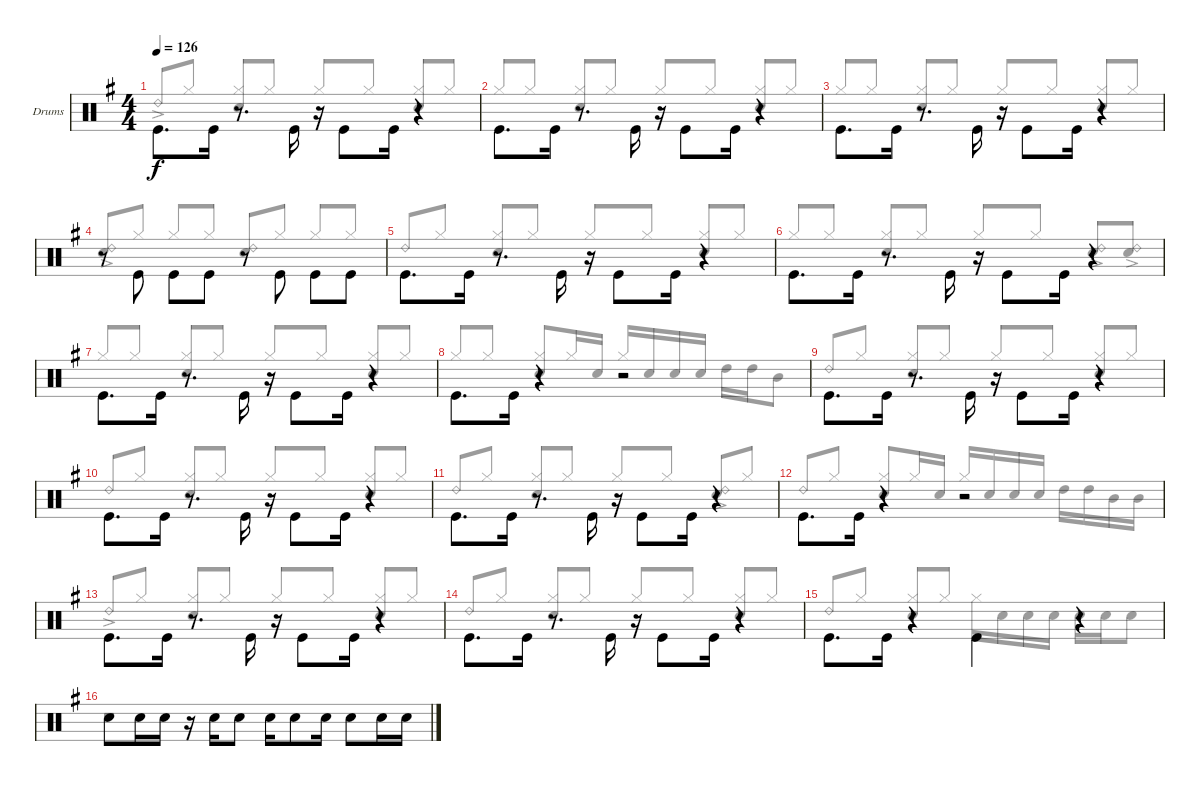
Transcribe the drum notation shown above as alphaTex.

\defaultSystemsLayout 4
\bracketExtendMode groupsimilarinstruments
\firstSystemTrackNameOrientation horizontal
\otherSystemsTrackNameOrientation horizontal
\track ("Drumkit" "Drums") {instrument percussion}
\staff {score}
\articulation defaults
\voice
\ts (4 4)
\tempo 126
\clef neutral
\scale
1.04288
\ks g "Kick (hit)".8{d dy f beam invert} "Kick (hit)".16
r.8{d beam invert} "Kick (hit)".16{beam invert} r.16{beam invert} "Kick (hit)".8{beam invert} "Kick (hit)".16 r.4{beam invert} |
\scale
0.957125 "Kick (hit)".8{d beam invert} "Kick (hit)".16 r.8{d beam invert} "Kick (hit)".16{beam invert} r.16{beam invert} "Kick (hit)".8{beam invert} "Kick (hit)".16 r.4{beam invert} |
\scale
1.04288 "Kick (hit)".8{d beam invert} "Kick (hit)".16 r.8{d beam invert} "Kick (hit)".16{beam invert} r.16{beam invert} "Kick (hit)".8{beam invert} "Kick (hit)".16 r.4{beam invert} |
\scale
0.957125 r.8 "Kick (hit)".8{beam invert} "Kick (hit)".8 "Kick (hit)".8{beam invert} r.8{beam invert} "Kick (hit)".8{beam invert} "Kick (hit)".8 "Kick (hit)".8{beam invert} |
\scale
1.04288 "Kick (hit)".8{d beam invert} "Kick (hit)".16 r.8{d beam invert} "Kick (hit)".16{beam invert} r.16{beam invert} "Kick (hit)".8{beam invert} "Kick (hit)".16 r.4{beam invert} |
\scale
0.957125 "Kick (hit)".8{d beam invert} "Kick (hit)".16 r.8{d beam invert} "Kick (hit)".16{beam invert} r.16{beam invert} "Kick (hit)".8{beam invert} "Kick (hit)".16 r.4{beam invert} |
\scale
1.04288 "Kick (hit)".8{d beam invert} "Kick (hit)".16 r.8{d beam invert} "Kick (hit)".16{beam invert} r.16{beam invert} "Kick (hit)".8{beam invert} "Kick (hit)".16 r.4{beam invert} |
\scale
0.957125 "Kick (hit)".8{d beam invert} "Kick (hit)".16 r.4{beam invert} r.2 |
\scale
1.04288 "Kick (hit)".8{d beam invert} "Kick (hit)".16 r.8{d beam invert} "Kick (hit)".16{beam invert} r.16{beam invert} "Kick (hit)".8{beam invert} "Kick (hit)".16 r.4{beam invert} |
\scale
0.957125 "Kick (hit)".8{d beam invert} "Kick (hit)".16 r.8{d beam invert} "Kick (hit)".16{beam invert} r.16{beam invert} "Kick (hit)".8{beam invert} "Kick (hit)".16 r.4{beam invert} |
\scale
1.04288 "Kick (hit)".8{d beam invert} "Kick (hit)".16 r.8{d beam invert} "Kick (hit)".16{beam invert} r.16{beam invert} "Kick (hit)".8{beam invert} "Kick (hit)".16 r.4{beam invert} |
\scale
0.957125 "Kick (hit)".8{d beam invert} "Kick (hit)".16 r.4{beam invert} r.2 |
\scale
1.04288 "Kick (hit)".8{d beam invert} "Kick (hit)".16 r.8{d beam invert} "Kick (hit)".16{beam invert} r.16{beam invert} "Kick (hit)".8{beam invert} "Kick (hit)".16 r.4{beam invert} |
\scale
0.957125 "Kick (hit)".8{d beam invert} "Kick (hit)".16 r.8{d beam invert} "Kick (hit)".16{beam invert} r.16{beam invert} "Kick (hit)".8{beam invert} "Kick (hit)".16 r.4{beam invert} |
\scale
1.04288 "Kick (hit)".8{d beam invert} "Kick (hit)".16 r.4{beam invert} "Kick (hit)".4{beam invert} r.4 |
\scale
0.957125 "Snare (hit) 2".8{beam invert} "Snare (hit) 2".16 "Snare (hit) 2".16 r.16{beam invert} "Snare (hit) 2".16{beam invert} "Snare (hit) 2".8 "Snare (hit) 2".16{beam invert} "Snare (hit) 2".8 "Snare (hit) 2".16 "Snare (hit) 2".8{beam invert} "Snare (hit) 2".16 "Snare (hit) 2".16
\voice
\clef neutral
\ottava regular
\simile none
\scale
1.04288
\ks g "Ride (bell) 2"{ac}.8{dy f beam invert} "Hi-Hat (closed)".8
("Hi-Hat (closed)" "Snare (hit) 2").8{beam invert} "Hi-Hat (closed)".8 "Hi-Hat (closed)".8{beam invert} "Hi-Hat (closed)".8 ("Hi-Hat (closed)" "Snare (hit) 2").8{beam invert} "Hi-Hat (closed)".8 |
\scale
0.957125 "Hi-Hat (closed)".8{beam invert} "Hi-Hat (closed)".8 ("Hi-Hat (closed)" "Snare (hit) 2").8{beam invert} "Hi-Hat (closed)".8 "Hi-Hat (closed)".8{beam invert} "Hi-Hat (closed)".8 ("Hi-Hat (closed)" "Snare (hit) 2").8{beam invert} "Hi-Hat (closed)".8 |
\scale
1.04288 "Hi-Hat (closed)".8{beam invert} "Hi-Hat (closed)".8 ("Hi-Hat (closed)" "Snare (hit) 2").8{beam invert} "Hi-Hat (closed)".8 "Hi-Hat (closed)".8{beam invert} "Hi-Hat (closed)".8 ("Hi-Hat (closed)" "Snare (hit) 2").8{beam invert} "Hi-Hat (closed)".8 |
\scale
0.957125 ("Ride (bell) 2"{ac} "Snare (hit) 2").8{beam invert} "Hi-Hat (closed)".8 "Hi-Hat (closed)".8{beam invert} "Hi-Hat (closed)".8 ("Ride (bell) 2" "Snare (hit) 2").8{beam invert} "Hi-Hat (closed)".8 "Hi-Hat (closed)".8{beam invert} "Hi-Hat (closed)".8 |
\scale
1.04288 "Ride (bell) 2".8{beam invert} "Hi-Hat (closed)".8 ("Hi-Hat (closed)" "Snare (hit) 2").8{beam invert} "Hi-Hat (closed)".8 "Hi-Hat (closed)".8{beam invert} "Hi-Hat (closed)".8 ("Hi-Hat (closed)" "Snare (hit) 2").8{beam invert} "Hi-Hat (closed)".8 |
\scale
0.957125 "Hi-Hat (closed)".8{beam invert} "Hi-Hat (closed)".8 ("Hi-Hat (closed)" "Snare (hit) 2").8{beam invert} "Hi-Hat (closed)".8 "Hi-Hat (closed)".8{beam invert} "Hi-Hat (closed)".8 ("Snare (hit) 2" "Ride (bell) 2"{ac}).8{beam invert} ("Snare (hit) 2" "Ride (bell) 2"{ac}).8 |
\scale
1.04288 "Hi-Hat (closed)".8{beam invert} "Hi-Hat (closed)".8 ("Hi-Hat (closed)" "Snare (hit) 2").8{beam invert} "Hi-Hat (closed)".8 "Hi-Hat (closed)".8{beam invert} "Hi-Hat (closed)".8 ("Hi-Hat (closed)" "Snare (hit) 2").8{beam invert} "Hi-Hat (closed)".8 |
\scale
0.957125 "Hi-Hat (closed)".8{beam invert} "Hi-Hat (closed)".8 ("Hi-Hat (closed)" "Snare (hit) 2").8{beam invert} "Hi-Hat (closed)".16 "Snare (hit) 2".16 "Hi-Hat (closed)".16{beam invert} "Snare (hit) 2".16 "Snare (hit) 2".16 "Snare (hit) 2".16 "High Tom (hit)".16 "High Tom (hit)".16 "Mid Tom (hit)".8 |
\scale
1.04288 "Ride (bell) 2".8{beam invert} "Hi-Hat (closed)".8 ("Hi-Hat (closed)" "Snare (hit) 2").8{beam invert} "Hi-Hat (closed)".8 "Hi-Hat (closed)".8{beam invert} "Hi-Hat (closed)".8 ("Hi-Hat (closed)" "Snare (hit) 2").8{beam invert} "Hi-Hat (closed)".8 |
\scale
0.957125 "Ride (bell) 2".8{beam invert} "Hi-Hat (closed)".8 ("Hi-Hat (closed)" "Snare (hit) 2").8{beam invert} "Hi-Hat (closed)".8 "Hi-Hat (closed)".8{beam invert} "Hi-Hat (closed)".8 ("Hi-Hat (closed)" "Snare (hit) 2").8{beam invert} "Hi-Hat (closed)".8 |
\scale
1.04288 "Ride (bell) 2".8{beam invert} "Hi-Hat (closed)".8 ("Hi-Hat (closed)" "Snare (hit) 2").8{beam invert} "Hi-Hat (closed)".8 "Hi-Hat (closed)".8{beam invert} "Hi-Hat (closed)".8 ("Snare (hit) 2" "Ride (bell) 2"{ac}).8{beam invert} "Hi-Hat (closed)".8 |
\scale
0.957125 "Ride (bell) 2".8{beam invert} "Hi-Hat (closed)".8 ("Hi-Hat (closed)" "Snare (hit) 2").8{beam invert} "Hi-Hat (closed)".16 "Snare (hit) 2".16 "Hi-Hat (closed)".16{beam invert} "Snare (hit) 2".16 "Snare (hit) 2".16 "Snare (hit) 2".16 "High Tom (hit)".16 "High Tom (hit)".16 "Mid Tom (hit)".16 "Mid Tom (hit)".16 |
\scale
1.04288 "Ride (bell) 2"{ac}.8{beam invert} "Hi-Hat (closed)".8 ("Hi-Hat (closed)" "Snare (hit) 2").8{beam invert} "Hi-Hat (closed)".8 "Hi-Hat (closed)".8{beam invert} "Hi-Hat (closed)".8 ("Hi-Hat (closed)" "Snare (hit) 2").8{beam invert} "Hi-Hat (closed)".8 |
\scale
0.957125 "Ride (bell) 2".8{beam invert} "Hi-Hat (closed)".8 ("Hi-Hat (closed)" "Snare (hit) 2").8{beam invert} "Hi-Hat (closed)".8 "Hi-Hat (closed)".8{beam invert} "Hi-Hat (closed)".8 ("Hi-Hat (closed)" "Snare (hit) 2").8{beam invert} "Hi-Hat (closed)".8 |
\scale
1.04288 "Ride (bell) 2".8{beam invert} "Hi-Hat (closed)".8 ("Hi-Hat (closed)" "Snare (hit) 2").8{beam invert} "Hi-Hat (closed)".8 "Hi-Hat (closed)".16 "Snare (hit) 2".16 "Snare (hit) 2".16 "Snare (hit) 2".16 "Snare (hit) 2".16 "Snare (hit) 2".16 "Snare (hit) 2".8 |
\scale
0.957125 r.1
